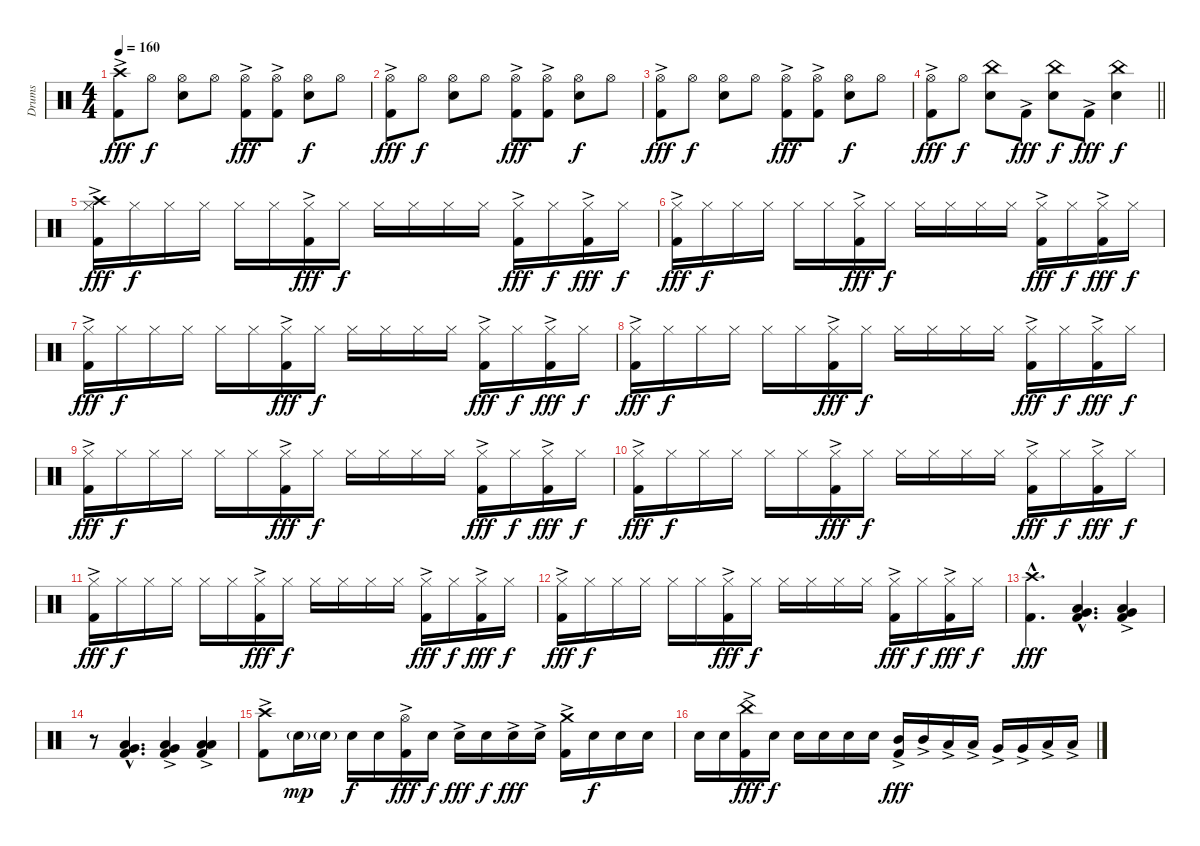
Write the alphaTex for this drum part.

\track ("Drums" "Drums") {instrument percussion}
\staff {score}
\articulation defaults
\ts (4 4)
\tempo 160
\clef neutral
\ks c
("Crash high (hit)" "Kick (hit) 2"{ac}).8{dy fff} "Hi-Hat (open)".8{dy f} ("Hi-Hat (open)" "Snare (hit) 2").8 "Hi-Hat (open)".8 ("Hi-Hat (open)" "Kick (hit) 2"{ac}).8{dy fff} ("Hi-Hat (open)" "Kick (hit) 2"{ac}).8 ("Hi-Hat (open)" "Snare (hit) 2").8{dy f} "Hi-Hat (open)".8 |
("Hi-Hat (open)" "Kick (hit) 2"{ac}).8{dy fff} "Hi-Hat (open)".8{dy f} ("Hi-Hat (open)" "Snare (hit) 2").8 "Hi-Hat (open)".8 ("Hi-Hat (open)" "Kick (hit) 2"{ac}).8{dy fff} ("Hi-Hat (open)" "Kick (hit) 2"{ac}).8 ("Hi-Hat (open)" "Snare (hit) 2").8{dy f} "Hi-Hat (open)".8 |
("Hi-Hat (open)" "Kick (hit) 2"{ac}).8{dy fff} "Hi-Hat (open)".8{dy f} ("Hi-Hat (open)" "Snare (hit) 2").8 "Hi-Hat (open)".8 ("Hi-Hat (open)" "Kick (hit) 2"{ac}).8{dy fff} ("Hi-Hat (open)" "Kick (hit) 2"{ac}).8 ("Hi-Hat (open)" "Snare (hit) 2").8{dy f} "Hi-Hat (open)".8 |
\barLineRight lightlight
("Hi-Hat (open)" "Kick (hit) 2"{ac}).8{dy fff} "Hi-Hat (open)".8{dy f} ("China (hit)" "Snare (hit) 2").8 "Kick (hit) 2"{ac}.8{dy fff} ("China (hit)" "Snare (hit) 2").8{dy f} "Kick (hit) 2"{ac}.8{dy fff} ("China (hit)" "Snare (hit) 2").4{dy f} |
("Kick (hit) 2"{ac} "Crash high (hit)" "Hi-Hat (closed)").16{dy fff} "Hi-Hat (closed)".16{dy f} "Hi-Hat (closed)".16 "Hi-Hat (closed)".16 "Hi-Hat (closed)".16 "Hi-Hat (closed)".16 ("Kick (hit) 2"{ac} "Hi-Hat (closed)").16{dy fff} "Hi-Hat (closed)".16{dy f} "Hi-Hat (closed)".16 "Hi-Hat (closed)".16 "Hi-Hat (closed)".16 "Hi-Hat (closed)".16 ("Kick (hit) 2"{ac} "Hi-Hat (closed)").16{dy fff} "Hi-Hat (closed)".16{dy f} ("Kick (hit) 2"{ac} "Hi-Hat (closed)").16{dy fff} "Hi-Hat (closed)".16{dy f} |
("Kick (hit) 2"{ac} "Hi-Hat (closed)").16{dy fff} "Hi-Hat (closed)".16{dy f} "Hi-Hat (closed)".16 "Hi-Hat (closed)".16 "Hi-Hat (closed)".16 "Hi-Hat (closed)".16 ("Kick (hit) 2"{ac} "Hi-Hat (closed)").16{dy fff} "Hi-Hat (closed)".16{dy f} "Hi-Hat (closed)".16 "Hi-Hat (closed)".16 "Hi-Hat (closed)".16 "Hi-Hat (closed)".16 ("Kick (hit) 2"{ac} "Hi-Hat (closed)").16{dy fff} "Hi-Hat (closed)".16{dy f} ("Kick (hit) 2"{ac} "Hi-Hat (closed)").16{dy fff} "Hi-Hat (closed)".16{dy f} |
("Kick (hit) 2"{ac} "Hi-Hat (closed)").16{dy fff} "Hi-Hat (closed)".16{dy f} "Hi-Hat (closed)".16 "Hi-Hat (closed)".16 "Hi-Hat (closed)".16 "Hi-Hat (closed)".16 ("Kick (hit) 2"{ac} "Hi-Hat (closed)").16{dy fff} "Hi-Hat (closed)".16{dy f} "Hi-Hat (closed)".16 "Hi-Hat (closed)".16 "Hi-Hat (closed)".16 "Hi-Hat (closed)".16 ("Kick (hit) 2"{ac} "Hi-Hat (closed)").16{dy fff} "Hi-Hat (closed)".16{dy f} ("Kick (hit) 2"{ac} "Hi-Hat (closed)").16{dy fff} "Hi-Hat (closed)".16{dy f} |
("Kick (hit) 2"{ac} "Hi-Hat (closed)").16{dy fff} "Hi-Hat (closed)".16{dy f} "Hi-Hat (closed)".16 "Hi-Hat (closed)".16 "Hi-Hat (closed)".16 "Hi-Hat (closed)".16 ("Kick (hit) 2"{ac} "Hi-Hat (closed)").16{dy fff} "Hi-Hat (closed)".16{dy f} "Hi-Hat (closed)".16 "Hi-Hat (closed)".16 "Hi-Hat (closed)".16 "Hi-Hat (closed)".16 ("Kick (hit) 2"{ac} "Hi-Hat (closed)").16{dy fff} "Hi-Hat (closed)".16{dy f} ("Kick (hit) 2"{ac} "Hi-Hat (closed)").16{dy fff} "Hi-Hat (closed)".16{dy f} |
("Kick (hit) 2"{ac} "Hi-Hat (closed)").16{dy fff} "Hi-Hat (closed)".16{dy f} "Hi-Hat (closed)".16 "Hi-Hat (closed)".16 "Hi-Hat (closed)".16 "Hi-Hat (closed)".16 ("Kick (hit) 2"{ac} "Hi-Hat (closed)").16{dy fff} "Hi-Hat (closed)".16{dy f} "Hi-Hat (closed)".16 "Hi-Hat (closed)".16 "Hi-Hat (closed)".16 "Hi-Hat (closed)".16 ("Kick (hit) 2"{ac} "Hi-Hat (closed)").16{dy fff} "Hi-Hat (closed)".16{dy f} ("Kick (hit) 2"{ac} "Hi-Hat (closed)").16{dy fff} "Hi-Hat (closed)".16{dy f} |
("Kick (hit) 2"{ac} "Hi-Hat (closed)").16{dy fff} "Hi-Hat (closed)".16{dy f} "Hi-Hat (closed)".16 "Hi-Hat (closed)".16 "Hi-Hat (closed)".16 "Hi-Hat (closed)".16 ("Kick (hit) 2"{ac} "Hi-Hat (closed)").16{dy fff} "Hi-Hat (closed)".16{dy f} "Hi-Hat (closed)".16 "Hi-Hat (closed)".16 "Hi-Hat (closed)".16 "Hi-Hat (closed)".16 ("Kick (hit) 2"{ac} "Hi-Hat (closed)").16{dy fff} "Hi-Hat (closed)".16{dy f} ("Kick (hit) 2"{ac} "Hi-Hat (closed)").16{dy fff} "Hi-Hat (closed)".16{dy f} |
("Kick (hit) 2"{ac} "Hi-Hat (closed)").16{dy fff} "Hi-Hat (closed)".16{dy f} "Hi-Hat (closed)".16 "Hi-Hat (closed)".16 "Hi-Hat (closed)".16 "Hi-Hat (closed)".16 ("Kick (hit) 2"{ac} "Hi-Hat (closed)").16{dy fff} "Hi-Hat (closed)".16{dy f} "Hi-Hat (closed)".16 "Hi-Hat (closed)".16 "Hi-Hat (closed)".16 "Hi-Hat (closed)".16 ("Kick (hit) 2"{ac} "Hi-Hat (closed)").16{dy fff} "Hi-Hat (closed)".16{dy f} ("Kick (hit) 2"{ac} "Hi-Hat (closed)").16{dy fff} "Hi-Hat (closed)".16{dy f} |
("Kick (hit) 2"{ac} "Hi-Hat (closed)").16{dy fff} "Hi-Hat (closed)".16{dy f} "Hi-Hat (closed)".16 "Hi-Hat (closed)".16 "Hi-Hat (closed)".16 "Hi-Hat (closed)".16 ("Kick (hit) 2"{ac} "Hi-Hat (closed)").16{dy fff} "Hi-Hat (closed)".16{dy f} "Hi-Hat (closed)".16 "Hi-Hat (closed)".16 "Hi-Hat (closed)".16 "Hi-Hat (closed)".16 ("Kick (hit) 2"{ac} "Hi-Hat (closed)").16{dy fff} "Hi-Hat (closed)".16{dy f} ("Kick (hit) 2"{ac} "Hi-Hat (closed)").16{dy fff} "Hi-Hat (closed)".16{dy f} |
("Crash high (hit)"{hac} "Kick (hit) 2"{hac}).4{d dy fff} ("Kick (hit) 2"{hac} "Low Floor Tom (hit)"{hac} "Very Low Tom (hit)"{hac}).4{d} ("Kick (hit) 2"{ac} "Low Floor Tom (hit)" "Very Low Tom (hit)").4 |
r.8 ("Kick (hit) 2"{hac} "Low Floor Tom (hit)"{hac} "Very Low Tom (hit)"{hac}).4{d} ("Kick (hit) 2"{ac} "Low Floor Tom (hit)" "Very Low Tom (hit)").4 ("Kick (hit) 2"{ac} "Low Floor Tom (hit)" "Low Tom (hit)").4 |
("Crash high (hit)" "Kick (hit) 2"{ac}).8 "Snare (hit) 2"{g}.16{dy mp} "Snare (hit) 2"{g}.16 "Snare (hit) 2".16{dy f} "Snare (hit) 2".16 ("Hi-Hat (open)"{ac} "Kick (hit) 2"{ac}).16{dy fff} "Snare (hit) 2".16{dy f} "Snare (hit) 2"{ac}.16{dy fff} "Snare (hit) 2".16{dy f} "Snare (hit) 2"{ac}.16{dy fff} "Snare (hit) 2"{ac}.16 ("Crash medium (hit)" "Kick (hit) 2"{ac}).16 "Snare (hit) 2".16{dy f} "Snare (hit) 2".16 "Snare (hit) 2".16 |
"Snare (hit) 2".16 "Snare (hit) 2".16 ("China (hit)" "Kick (hit) 2"{ac}).16{dy fff} "Snare (hit) 2".16{dy f} "Snare (hit) 2".16 "Snare (hit) 2".16 "Snare (hit) 2".16 "Snare (hit) 2".16 ("Mid Tom (hit)"{ac} "Kick (hit) 2"{ac}).16{dy fff} "Mid Tom (hit)"{ac}.16 "Low Tom (hit)"{ac}.16 "Low Tom (hit)"{ac}.16 "Very Low Tom (hit)"{ac}.16 "Very Low Tom (hit)"{ac}.16 "Low Floor Tom (hit)"{ac}.16 "Low Floor Tom (hit)"{ac}.16
